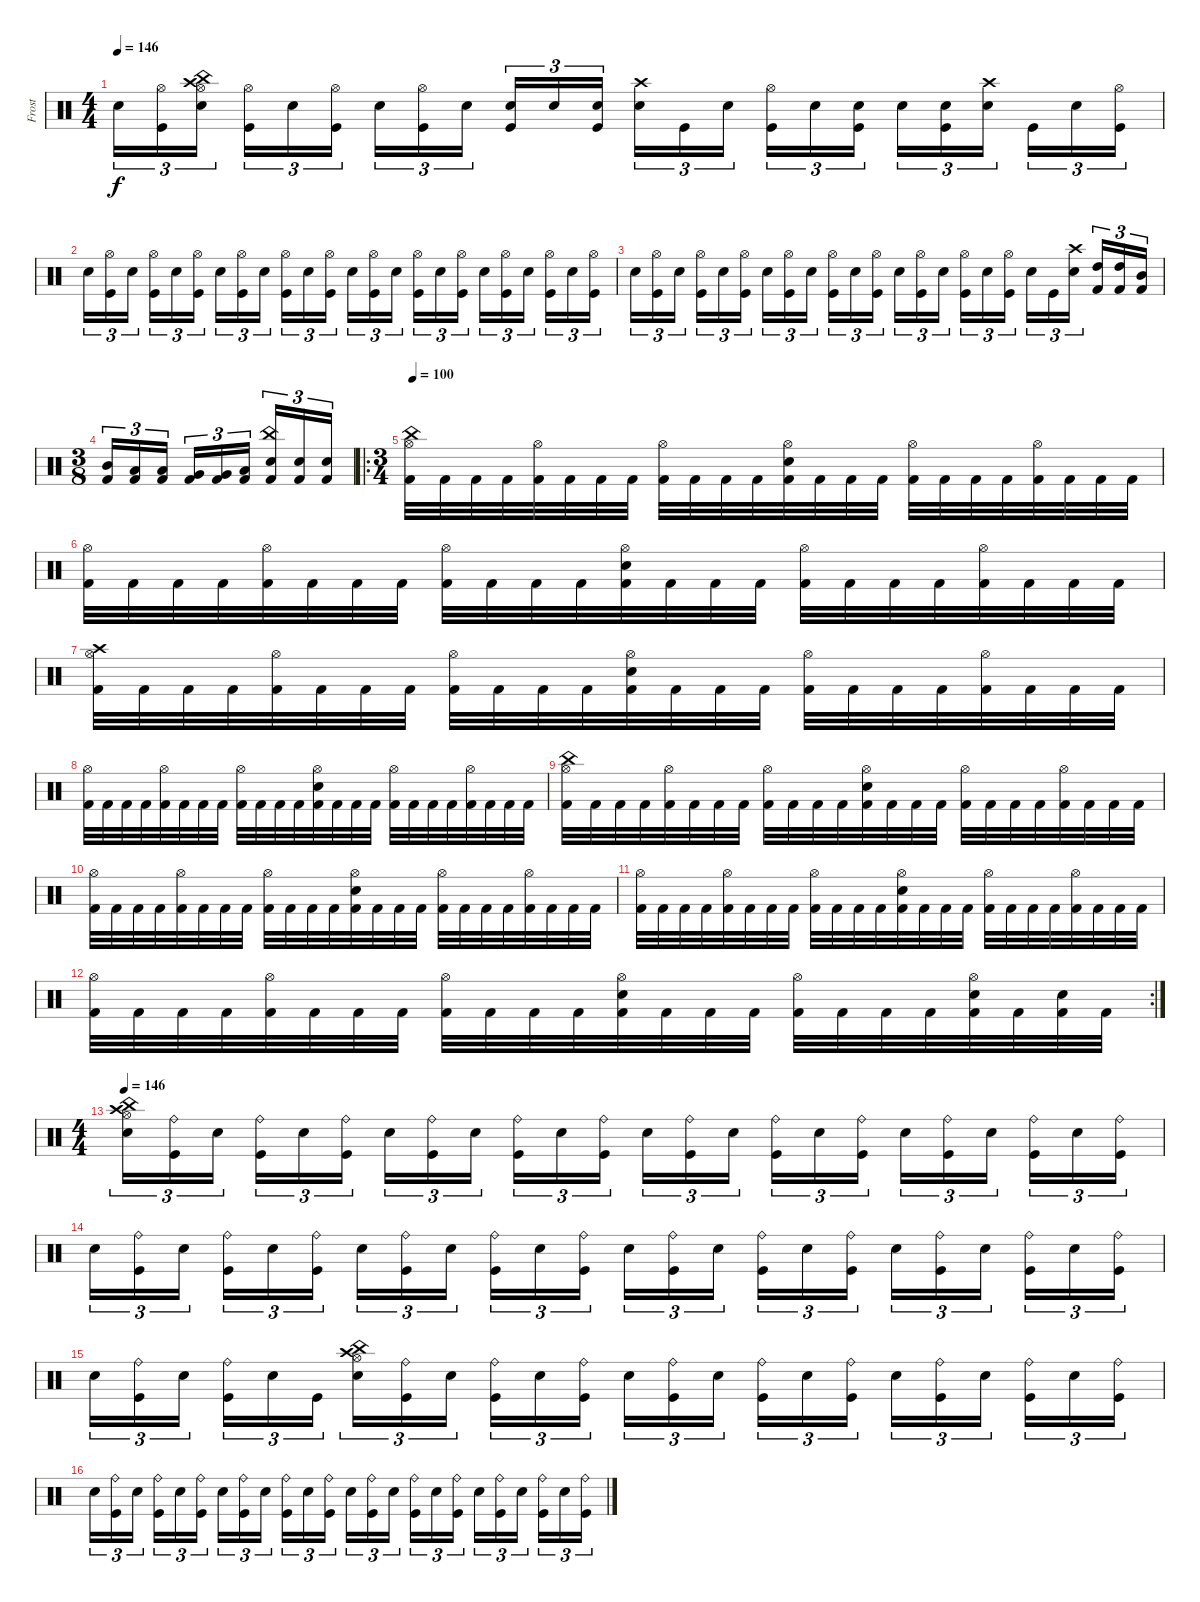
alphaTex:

\track ("Frost" "Frost") {instrument percussion}
\staff {score}
\articulation defaults
\ts (4 4)
\tempo 146
\clef neutral
\ks c "Electric Snare (hit)".16{tu (3 2) dy f}
("Hi-Hat (open)" "Kick (hit)").16{tu (3 2)} ("China (hit)" "Crash high (hit)" "Hi-Hat (open)" "Electric Snare (hit)").16{tu (3 2)} ("Hi-Hat (open)" "Kick (hit)").16{tu (3 2)} "Electric Snare (hit)".16{tu (3 2)} ("Hi-Hat (open)" "Kick (hit)").16{tu (3 2)} "Electric Snare (hit)".16{tu (3 2)} ("Hi-Hat (open)" "Kick (hit)").16{tu (3 2)} "Electric Snare (hit)".16{tu (3 2)} ("Kick (hit)" "Electric Snare (hit)").16{tu (3 2)} "Electric Snare (hit)".16{tu (3 2)} ("Kick (hit)" "Snare (hit) 2").16{tu (3 2)} ("Crash high (hit)" "Electric Snare (hit)").16{tu (3 2)} "Kick (hit)".16{tu (3 2)} "Electric Snare (hit)".16{tu (3 2)} ("Hi-Hat (open)" "Kick (hit)").16{tu (3 2)} "Electric Snare (hit)".16{tu (3 2)} ("Kick (hit)" "Electric Snare (hit)").16{tu (3 2)} "Electric Snare (hit)".16{tu (3 2)} ("Kick (hit)" "Snare (hit) 2").16{tu (3 2)} ("Crash high (hit)" "Electric Snare (hit)").16{tu (3 2)} "Kick (hit)".16{tu (3 2)} "Electric Snare (hit)".16{tu (3 2)} ("Hi-Hat (open)" "Kick (hit)").16{tu (3 2)} |
"Electric Snare (hit)".16{tu (3 2)} ("Hi-Hat (open)" "Kick (hit)").16{tu (3 2)} "Electric Snare (hit)".16{tu (3 2)} ("Hi-Hat (open)" "Kick (hit)").16{tu (3 2)} "Electric Snare (hit)".16{tu (3 2)} ("Hi-Hat (open)" "Kick (hit)").16{tu (3 2)} "Electric Snare (hit)".16{tu (3 2)} ("Hi-Hat (open)" "Kick (hit)").16{tu (3 2)} "Electric Snare (hit)".16{tu (3 2)} ("Hi-Hat (open)" "Kick (hit)").16{tu (3 2)} "Electric Snare (hit)".16{tu (3 2)} ("Hi-Hat (open)" "Kick (hit)").16{tu (3 2)} "Electric Snare (hit)".16{tu (3 2)} ("Hi-Hat (open)" "Kick (hit)").16{tu (3 2)} "Electric Snare (hit)".16{tu (3 2)} ("Hi-Hat (open)" "Kick (hit)").16{tu (3 2)} "Electric Snare (hit)".16{tu (3 2)} ("Hi-Hat (open)" "Kick (hit)").16{tu (3 2)} "Electric Snare (hit)".16{tu (3 2)} ("Hi-Hat (open)" "Kick (hit)").16{tu (3 2)} "Electric Snare (hit)".16{tu (3 2)} ("Hi-Hat (open)" "Kick (hit)").16{tu (3 2)} "Electric Snare (hit)".16{tu (3 2)} ("Hi-Hat (open)" "Kick (hit)").16{tu (3 2)} |
"Electric Snare (hit)".16{tu (3 2)} ("Hi-Hat (open)" "Kick (hit)").16{tu (3 2)} "Electric Snare (hit)".16{tu (3 2)} ("Hi-Hat (open)" "Kick (hit)").16{tu (3 2)} "Electric Snare (hit)".16{tu (3 2)} ("Hi-Hat (open)" "Kick (hit)").16{tu (3 2)} "Electric Snare (hit)".16{tu (3 2)} ("Hi-Hat (open)" "Kick (hit)").16{tu (3 2)} "Electric Snare (hit)".16{tu (3 2)} ("Hi-Hat (open)" "Kick (hit)").16{tu (3 2)} "Electric Snare (hit)".16{tu (3 2)} ("Hi-Hat (open)" "Kick (hit)").16{tu (3 2)} "Electric Snare (hit)".16{tu (3 2)} ("Hi-Hat (open)" "Kick (hit)").16{tu (3 2)} "Electric Snare (hit)".16{tu (3 2)} ("Hi-Hat (open)" "Kick (hit)").16{tu (3 2)} "Electric Snare (hit)".16{tu (3 2)} ("Hi-Hat (open)" "Kick (hit)").16{tu (3 2)} "Electric Snare (hit)".16{tu (3 2)} "Kick (hit)".16{tu (3 2)} ("Crash high (hit)" "Electric Snare (hit)").16{tu (3 2)} ("Kick (hit) 2" "High Tom (hit)").16{tu (3 2)} ("Kick (hit) 2" "High Tom (hit)").16{tu (3 2)} ("Kick (hit) 2" "Mid Tom (hit)").16{tu (3 2)} |
\ts (3 8)
("Kick (hit) 2" "Mid Tom (hit)").16{tu (3 2)} ("Kick (hit) 2" "Low Tom (hit)").16{tu (3 2)} ("Kick (hit) 2" "Low Tom (hit)").16{tu (3 2)} ("Kick (hit) 2" "Very Low Tom (hit)").16{tu (3 2)} ("Kick (hit) 2" "Very Low Tom (hit)").16{tu (3 2)} ("Kick (hit) 2" "Low Floor Tom (hit)").16{tu (3 2)} ("Kick (hit) 2" "China (hit)" "Electric Snare (hit)").16{tu (3 2)} ("Kick (hit) 2" "Electric Snare (hit)").16{tu (3 2)} ("Kick (hit) 2" "Electric Snare (hit)").16{tu (3 2)} |
\ro
\ts (3 4)
\tempo 120
\tempo 100
("China (hit)" "Kick (hit) 2" "Hi-Hat (open)").32 "Kick (hit) 2".32 "Kick (hit) 2".32 "Kick (hit) 2".32 ("Kick (hit) 2" "Hi-Hat (open)").32 "Kick (hit) 2".32 "Kick (hit) 2".32 "Kick (hit) 2".32 ("Kick (hit) 2" "Hi-Hat (open)").32 "Kick (hit) 2".32 "Kick (hit) 2".32 "Kick (hit) 2".32 ("Kick (hit) 2" "Electric Snare (hit)" "Hi-Hat (open)").32 "Kick (hit) 2".32 "Kick (hit) 2".32 "Kick (hit) 2".32 ("Kick (hit) 2" "Hi-Hat (open)").32 "Kick (hit) 2".32 "Kick (hit) 2".32 "Kick (hit) 2".32 ("Kick (hit) 2" "Hi-Hat (open)").32 "Kick (hit) 2".32 "Kick (hit) 2".32 "Kick (hit) 2".32 |
("Kick (hit) 2" "Hi-Hat (open)").32 "Kick (hit) 2".32 "Kick (hit) 2".32 "Kick (hit) 2".32 ("Kick (hit) 2" "Hi-Hat (open)").32 "Kick (hit) 2".32 "Kick (hit) 2".32 "Kick (hit) 2".32 ("Kick (hit) 2" "Hi-Hat (open)").32 "Kick (hit) 2".32 "Kick (hit) 2".32 "Kick (hit) 2".32 ("Kick (hit) 2" "Electric Snare (hit)" "Hi-Hat (open)").32 "Kick (hit) 2".32 "Kick (hit) 2".32 "Kick (hit) 2".32 ("Kick (hit) 2" "Hi-Hat (open)").32 "Kick (hit) 2".32 "Kick (hit) 2".32 "Kick (hit) 2".32 ("Kick (hit) 2" "Hi-Hat (open)").32 "Kick (hit) 2".32 "Kick (hit) 2".32 "Kick (hit) 2".32 |
("Crash high (hit)" "Kick (hit) 2" "Hi-Hat (open)").32 "Kick (hit) 2".32 "Kick (hit) 2".32 "Kick (hit) 2".32 ("Kick (hit) 2" "Hi-Hat (open)").32 "Kick (hit) 2".32 "Kick (hit) 2".32 "Kick (hit) 2".32 ("Kick (hit) 2" "Hi-Hat (open)").32 "Kick (hit) 2".32 "Kick (hit) 2".32 "Kick (hit) 2".32 ("Kick (hit) 2" "Electric Snare (hit)" "Hi-Hat (open)").32 "Kick (hit) 2".32 "Kick (hit) 2".32 "Kick (hit) 2".32 ("Kick (hit) 2" "Hi-Hat (open)").32 "Kick (hit) 2".32 "Kick (hit) 2".32 "Kick (hit) 2".32 ("Kick (hit) 2" "Hi-Hat (open)").32 "Kick (hit) 2".32 "Kick (hit) 2".32 "Kick (hit) 2".32 |
("Kick (hit) 2" "Hi-Hat (open)").32 "Kick (hit) 2".32 "Kick (hit) 2".32 "Kick (hit) 2".32 ("Kick (hit) 2" "Hi-Hat (open)").32 "Kick (hit) 2".32 "Kick (hit) 2".32 "Kick (hit) 2".32 ("Kick (hit) 2" "Hi-Hat (open)").32 "Kick (hit) 2".32 "Kick (hit) 2".32 "Kick (hit) 2".32 ("Kick (hit) 2" "Electric Snare (hit)" "Hi-Hat (open)").32 "Kick (hit) 2".32 "Kick (hit) 2".32 "Kick (hit) 2".32 ("Kick (hit) 2" "Hi-Hat (open)").32 "Kick (hit) 2".32 "Kick (hit) 2".32 "Kick (hit) 2".32 ("Kick (hit) 2" "Hi-Hat (open)").32 "Kick (hit) 2".32 "Kick (hit) 2".32 "Kick (hit) 2".32 |
("China (hit)" "Kick (hit) 2" "Hi-Hat (open)").32 "Kick (hit) 2".32 "Kick (hit) 2".32 "Kick (hit) 2".32 ("Kick (hit) 2" "Hi-Hat (open)").32 "Kick (hit) 2".32 "Kick (hit) 2".32 "Kick (hit) 2".32 ("Kick (hit) 2" "Hi-Hat (open)").32 "Kick (hit) 2".32 "Kick (hit) 2".32 "Kick (hit) 2".32 ("Kick (hit) 2" "Electric Snare (hit)" "Hi-Hat (open)").32 "Kick (hit) 2".32 "Kick (hit) 2".32 "Kick (hit) 2".32 ("Kick (hit) 2" "Hi-Hat (open)").32 "Kick (hit) 2".32 "Kick (hit) 2".32 "Kick (hit) 2".32 ("Kick (hit) 2" "Hi-Hat (open)").32 "Kick (hit) 2".32 "Kick (hit) 2".32 "Kick (hit) 2".32 |
("Kick (hit) 2" "Hi-Hat (open)").32 "Kick (hit) 2".32 "Kick (hit) 2".32 "Kick (hit) 2".32 ("Kick (hit) 2" "Hi-Hat (open)").32 "Kick (hit) 2".32 "Kick (hit) 2".32 "Kick (hit) 2".32 ("Kick (hit) 2" "Hi-Hat (open)").32 "Kick (hit) 2".32 "Kick (hit) 2".32 "Kick (hit) 2".32 ("Kick (hit) 2" "Electric Snare (hit)" "Hi-Hat (open)").32 "Kick (hit) 2".32 "Kick (hit) 2".32 "Kick (hit) 2".32 ("Kick (hit) 2" "Hi-Hat (open)").32 "Kick (hit) 2".32 "Kick (hit) 2".32 "Kick (hit) 2".32 ("Kick (hit) 2" "Hi-Hat (open)").32 "Kick (hit) 2".32 "Kick (hit) 2".32 "Kick (hit) 2".32 |
("Kick (hit) 2" "Hi-Hat (open)").32 "Kick (hit) 2".32 "Kick (hit) 2".32 "Kick (hit) 2".32 ("Kick (hit) 2" "Hi-Hat (open)").32 "Kick (hit) 2".32 "Kick (hit) 2".32 "Kick (hit) 2".32 ("Kick (hit) 2" "Hi-Hat (open)").32 "Kick (hit) 2".32 "Kick (hit) 2".32 "Kick (hit) 2".32 ("Kick (hit) 2" "Electric Snare (hit)" "Hi-Hat (open)").32 "Kick (hit) 2".32 "Kick (hit) 2".32 "Kick (hit) 2".32 ("Kick (hit) 2" "Hi-Hat (open)").32 "Kick (hit) 2".32 "Kick (hit) 2".32 "Kick (hit) 2".32 ("Kick (hit) 2" "Hi-Hat (open)").32 "Kick (hit) 2".32 "Kick (hit) 2".32 "Kick (hit) 2".32 |
\rc 2
("Kick (hit) 2" "Hi-Hat (open)").32 "Kick (hit) 2".32 "Kick (hit) 2".32 "Kick (hit) 2".32 ("Kick (hit) 2" "Hi-Hat (open)").32 "Kick (hit) 2".32 "Kick (hit) 2".32 "Kick (hit) 2".32 ("Kick (hit) 2" "Hi-Hat (open)").32 "Kick (hit) 2".32 "Kick (hit) 2".32 "Kick (hit) 2".32 ("Kick (hit) 2" "Electric Snare (hit)" "Hi-Hat (open)").32 "Kick (hit) 2".32 "Kick (hit) 2".32 "Kick (hit) 2".32 ("Kick (hit) 2" "Hi-Hat (open)").32 "Kick (hit) 2".32 "Kick (hit) 2".32 "Kick (hit) 2".32 ("Kick (hit) 2" "Electric Snare (hit)" "Hi-Hat (open)").32 "Kick (hit) 2".32 ("Kick (hit) 2" "Electric Snare (hit)").32 "Kick (hit) 2".32 |
\ts (4 4)
\tempo 146
("China (hit)" "Crash high (hit)" "Electric Snare (hit)" "Hi-Hat (open)").16{tu (3 2)} ("Ride (bell)" "Kick (hit)").16{tu (3 2)} "Electric Snare (hit)".16{tu (3 2)} ("Ride (bell)" "Kick (hit)").16{tu (3 2)} "Electric Snare (hit)".16{tu (3 2)} ("Ride (bell)" "Kick (hit)").16{tu (3 2)} "Electric Snare (hit)".16{tu (3 2)} ("Ride (bell)" "Kick (hit)").16{tu (3 2)} "Electric Snare (hit)".16{tu (3 2)} ("Ride (bell)" "Kick (hit)").16{tu (3 2)} "Electric Snare (hit)".16{tu (3 2)} ("Ride (bell)" "Kick (hit)").16{tu (3 2)} "Electric Snare (hit)".16{tu (3 2)} ("Ride (bell)" "Kick (hit)").16{tu (3 2)} "Electric Snare (hit)".16{tu (3 2)} ("Ride (bell)" "Kick (hit)").16{tu (3 2)} "Electric Snare (hit)".16{tu (3 2)} ("Ride (bell)" "Kick (hit)").16{tu (3 2)} "Electric Snare (hit)".16{tu (3 2)} ("Ride (bell)" "Kick (hit)").16{tu (3 2)} "Electric Snare (hit)".16{tu (3 2)} ("Ride (bell)" "Kick (hit)").16{tu (3 2)} "Electric Snare (hit)".16{tu (3 2)} ("Ride (bell)" "Kick (hit)").16{tu (3 2)} |
"Electric Snare (hit)".16{tu (3 2)} ("Ride (bell)" "Kick (hit)").16{tu (3 2)} "Electric Snare (hit)".16{tu (3 2)} ("Ride (bell)" "Kick (hit)").16{tu (3 2)} "Electric Snare (hit)".16{tu (3 2)} ("Ride (bell)" "Kick (hit)").16{tu (3 2)} "Electric Snare (hit)".16{tu (3 2)} ("Ride (bell)" "Kick (hit)").16{tu (3 2)} "Electric Snare (hit)".16{tu (3 2)} ("Ride (bell)" "Kick (hit)").16{tu (3 2)} "Electric Snare (hit)".16{tu (3 2)} ("Ride (bell)" "Kick (hit)").16{tu (3 2)} "Electric Snare (hit)".16{tu (3 2)} ("Ride (bell)" "Kick (hit)").16{tu (3 2)} "Electric Snare (hit)".16{tu (3 2)} ("Ride (bell)" "Kick (hit)").16{tu (3 2)} "Electric Snare (hit)".16{tu (3 2)} ("Ride (bell)" "Kick (hit)").16{tu (3 2)} "Electric Snare (hit)".16{tu (3 2)} ("Ride (bell)" "Kick (hit)").16{tu (3 2)} "Electric Snare (hit)".16{tu (3 2)} ("Ride (bell)" "Kick (hit)").16{tu (3 2)} "Electric Snare (hit)".16{tu (3 2)} ("Ride (bell)" "Kick (hit)").16{tu (3 2)} |
"Electric Snare (hit)".16{tu (3 2)} ("Ride (bell)" "Kick (hit)").16{tu (3 2)} "Electric Snare (hit)".16{tu (3 2)} ("Ride (bell)" "Kick (hit)").16{tu (3 2)} "Electric Snare (hit)".16{tu (3 2)} "Kick (hit)".16{tu (3 2)} ("China (hit)" "Crash high (hit)" "Hi-Hat (open)" "Electric Snare (hit)").16{tu (3 2)} ("Ride (bell)" "Kick (hit)").16{tu (3 2)} "Electric Snare (hit)".16{tu (3 2)} ("Ride (bell)" "Kick (hit)").16{tu (3 2)} "Electric Snare (hit)".16{tu (3 2)} ("Ride (bell)" "Kick (hit)").16{tu (3 2)} "Electric Snare (hit)".16{tu (3 2)} ("Ride (bell)" "Kick (hit)").16{tu (3 2)} "Electric Snare (hit)".16{tu (3 2)} ("Ride (bell)" "Kick (hit)").16{tu (3 2)} "Electric Snare (hit)".16{tu (3 2)} ("Ride (bell)" "Kick (hit)").16{tu (3 2)} "Electric Snare (hit)".16{tu (3 2)} ("Ride (bell)" "Kick (hit)").16{tu (3 2)} "Electric Snare (hit)".16{tu (3 2)} ("Ride (bell)" "Kick (hit)").16{tu (3 2)} "Electric Snare (hit)".16{tu (3 2)} ("Ride (bell)" "Kick (hit)").16{tu (3 2)} |
"Electric Snare (hit)".16{tu (3 2)} ("Ride (bell)" "Kick (hit)").16{tu (3 2)} "Electric Snare (hit)".16{tu (3 2)} ("Ride (bell)" "Kick (hit)").16{tu (3 2)} "Electric Snare (hit)".16{tu (3 2)} ("Ride (bell)" "Kick (hit)").16{tu (3 2)} "Electric Snare (hit)".16{tu (3 2)} ("Ride (bell)" "Kick (hit)").16{tu (3 2)} "Electric Snare (hit)".16{tu (3 2)} ("Ride (bell)" "Kick (hit)").16{tu (3 2)} "Electric Snare (hit)".16{tu (3 2)} ("Ride (bell)" "Kick (hit)").16{tu (3 2)} "Electric Snare (hit)".16{tu (3 2)} ("Ride (bell)" "Kick (hit)").16{tu (3 2)} "Electric Snare (hit)".16{tu (3 2)} ("Ride (bell)" "Kick (hit)").16{tu (3 2)} "Electric Snare (hit)".16{tu (3 2)} ("Ride (bell)" "Kick (hit)").16{tu (3 2)} "Electric Snare (hit)".16{tu (3 2)} ("Ride (bell)" "Kick (hit)").16{tu (3 2)} "Electric Snare (hit)".16{tu (3 2)} ("Ride (bell)" "Kick (hit)").16{tu (3 2)} "Electric Snare (hit)".16{tu (3 2)} ("Ride (bell)" "Kick (hit)").16{tu (3 2)}
